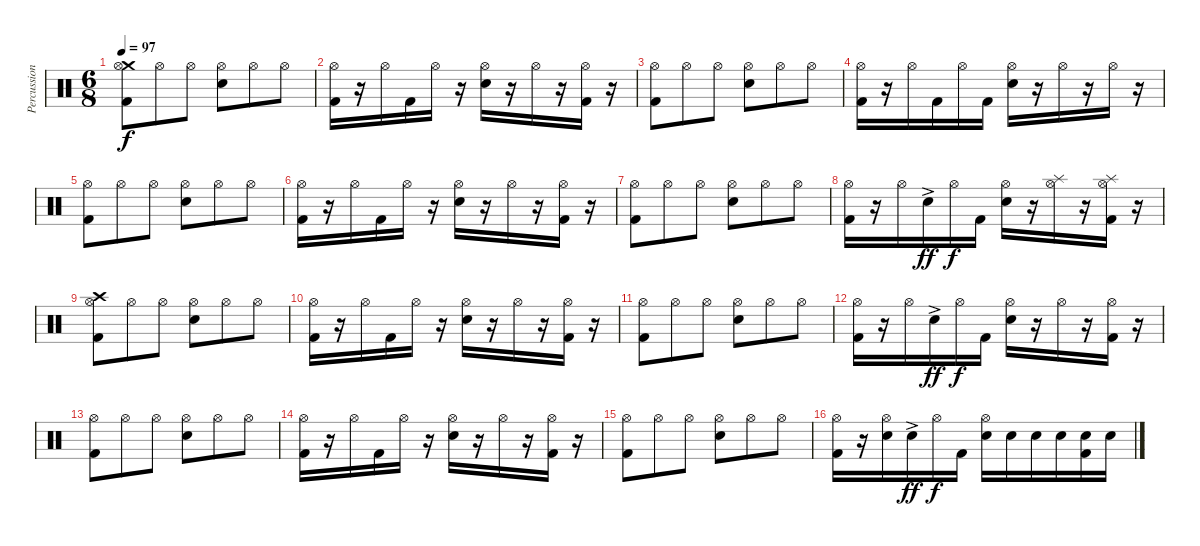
\track ("Percussion" "Percussion") {instrument percussion}
\staff {score}
\articulation defaults
\ts (6 8)
\tempo 97
\clef neutral
\ks c
("Crash medium (hit)" "Hi-Hat (open)" "Kick (hit) 2").8{dy f} "Hi-Hat (open)".8 "Hi-Hat (open)".8 ("Hi-Hat (open)" "Electric Snare (hit)").8 "Hi-Hat (open)".8 "Hi-Hat (open)".8 |
("Hi-Hat (open)" "Kick (hit) 2").16 r.16 "Hi-Hat (open)".16 "Kick (hit) 2".16 "Hi-Hat (open)".16 r.16 ("Hi-Hat (open)" "Electric Snare (hit)").16 r.16 "Hi-Hat (open)".16 r.16 ("Hi-Hat (open)" "Kick (hit) 2").16 r.16 |
("Hi-Hat (open)" "Kick (hit) 2").8 "Hi-Hat (open)".8 "Hi-Hat (open)".8 ("Hi-Hat (open)" "Electric Snare (hit)").8 "Hi-Hat (open)".8 "Hi-Hat (open)".8 |
("Hi-Hat (open)" "Kick (hit) 2").16 r.16 "Hi-Hat (open)".16 "Kick (hit) 2".16 "Hi-Hat (open)".16 "Kick (hit) 2".16 ("Hi-Hat (open)" "Electric Snare (hit)").16 r.16 "Hi-Hat (open)".16 r.16 "Hi-Hat (open)".16 r.16 |
("Hi-Hat (open)" "Kick (hit) 2").8 "Hi-Hat (open)".8 "Hi-Hat (open)".8 ("Hi-Hat (open)" "Electric Snare (hit)").8 "Hi-Hat (open)".8 "Hi-Hat (open)".8 |
("Hi-Hat (open)" "Kick (hit) 2").16 r.16 "Hi-Hat (open)".16 "Kick (hit) 2".16 "Hi-Hat (open)".16 r.16 ("Hi-Hat (open)" "Electric Snare (hit)").16 r.16 "Hi-Hat (open)".16 r.16 ("Hi-Hat (open)" "Kick (hit) 2").16 r.16 |
("Hi-Hat (open)" "Kick (hit) 2").8 "Hi-Hat (open)".8 "Hi-Hat (open)".8 ("Hi-Hat (open)" "Electric Snare (hit)").8 "Hi-Hat (open)".8 "Hi-Hat (open)".8 |
("Hi-Hat (open)" "Kick (hit) 2").16 r.16 "Hi-Hat (open)".16 "Electric Snare (hit)"{ac}.16{dy ff} "Hi-Hat (open)".16{dy f} "Kick (hit) 2".16 ("Hi-Hat (open)" "Electric Snare (hit)").16 r.16 ("Splash (hit)" "Hi-Hat (open)").16 r.16 ("Splash (hit)" "Hi-Hat (open)" "Kick (hit) 2").16 r.16 |
("Crash high (hit)" "Hi-Hat (open)" "Kick (hit) 2").8 "Hi-Hat (open)".8 "Hi-Hat (open)".8 ("Hi-Hat (open)" "Electric Snare (hit)").8 "Hi-Hat (open)".8 "Hi-Hat (open)".8 |
("Hi-Hat (open)" "Kick (hit) 2").16 r.16 "Hi-Hat (open)".16 "Kick (hit) 2".16 "Hi-Hat (open)".16 r.16 ("Hi-Hat (open)" "Electric Snare (hit)").16 r.16 "Hi-Hat (open)".16 r.16 ("Hi-Hat (open)" "Kick (hit) 2").16 r.16 |
("Hi-Hat (open)" "Kick (hit) 2").8 "Hi-Hat (open)".8 "Hi-Hat (open)".8 ("Hi-Hat (open)" "Electric Snare (hit)").8 "Hi-Hat (open)".8 "Hi-Hat (open)".8 |
("Hi-Hat (open)" "Kick (hit) 2").16 r.16 "Hi-Hat (open)".16 "Electric Snare (hit)"{ac}.16{dy ff} "Hi-Hat (open)".16{dy f} "Kick (hit) 2".16 ("Hi-Hat (open)" "Electric Snare (hit)").16 r.16 "Hi-Hat (open)".16 r.16 ("Hi-Hat (open)" "Kick (hit) 2").16 r.16 |
("Hi-Hat (open)" "Kick (hit) 2").8 "Hi-Hat (open)".8 "Hi-Hat (open)".8 ("Hi-Hat (open)" "Electric Snare (hit)").8 "Hi-Hat (open)".8 "Hi-Hat (open)".8 |
("Hi-Hat (open)" "Kick (hit) 2").16 r.16 "Hi-Hat (open)".16 "Kick (hit) 2".16 "Hi-Hat (open)".16 r.16 ("Hi-Hat (open)" "Electric Snare (hit)").16 r.16 "Hi-Hat (open)".16 r.16 ("Hi-Hat (open)" "Kick (hit) 2").16 r.16 |
("Hi-Hat (open)" "Kick (hit) 2").8 "Hi-Hat (open)".8 "Hi-Hat (open)".8 ("Hi-Hat (open)" "Electric Snare (hit)").8 "Hi-Hat (open)".8 "Hi-Hat (open)".8 |
("Hi-Hat (open)" "Kick (hit) 2").16 r.16 ("Hi-Hat (open)" "Electric Snare (hit)").16 "Electric Snare (hit)"{ac}.16{dy ff} "Hi-Hat (open)".16{dy f} "Kick (hit) 2".16 ("Hi-Hat (open)" "Electric Snare (hit)").16 "Electric Snare (hit)".16 "Electric Snare (hit)".16 "Electric Snare (hit)".16 ("Electric Snare (hit)" "Kick (hit) 2").16 "Electric Snare (hit)".16
